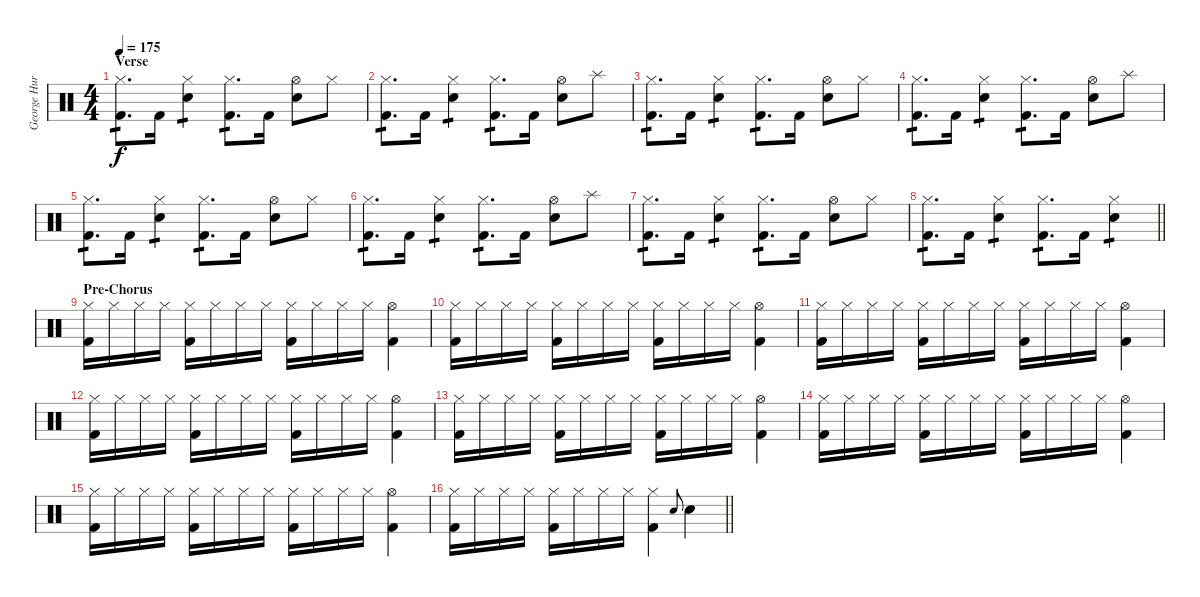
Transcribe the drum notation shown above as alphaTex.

\track ("George Hurley [Drums]" "George Hur") {instrument percussion}
\staff {score}
\articulation defaults
\ts (4 4)
\section ("" "Verse")
\tempo 175
\clef neutral
\ks c
("Hi-Hat (closed)" "Kick (hit) 2").8{d tp 1 dy f} "Kick (hit) 2".16 ("Hi-Hat (closed)" "Electric Snare (hit)").4{tp 1} ("Hi-Hat (closed)" "Kick (hit) 2").8{d tp 1} "Kick (hit) 2".16 ("Hi-Hat (open)" "Electric Snare (hit)").8 "Hi-Hat (closed)".8 |
("Hi-Hat (closed)" "Kick (hit) 2").8{d tp 1} "Kick (hit) 2".16 ("Hi-Hat (closed)" "Electric Snare (hit)").4{tp 1} ("Hi-Hat (closed)" "Kick (hit) 2").8{d tp 1} "Kick (hit) 2".16 ("Hi-Hat (open)" "Electric Snare (hit)").8 "Splash (hit)".8 |
("Hi-Hat (closed)" "Kick (hit) 2").8{d tp 1} "Kick (hit) 2".16 ("Hi-Hat (closed)" "Electric Snare (hit)").4{tp 1} ("Hi-Hat (closed)" "Kick (hit) 2").8{d tp 1} "Kick (hit) 2".16 ("Hi-Hat (open)" "Electric Snare (hit)").8 "Hi-Hat (closed)".8 |
("Hi-Hat (closed)" "Kick (hit) 2").8{d tp 1} "Kick (hit) 2".16 ("Hi-Hat (closed)" "Electric Snare (hit)").4{tp 1} ("Hi-Hat (closed)" "Kick (hit) 2").8{d tp 1} "Kick (hit) 2".16 ("Hi-Hat (open)" "Electric Snare (hit)").8 "Splash (hit)".8 |
("Hi-Hat (closed)" "Kick (hit) 2").8{d tp 1} "Kick (hit) 2".16 ("Hi-Hat (closed)" "Electric Snare (hit)").4{tp 1} ("Hi-Hat (closed)" "Kick (hit) 2").8{d tp 1} "Kick (hit) 2".16 ("Hi-Hat (open)" "Electric Snare (hit)").8 "Hi-Hat (closed)".8 |
("Hi-Hat (closed)" "Kick (hit) 2").8{d tp 1} "Kick (hit) 2".16 ("Hi-Hat (closed)" "Electric Snare (hit)").4{tp 1} ("Hi-Hat (closed)" "Kick (hit) 2").8{d tp 1} "Kick (hit) 2".16 ("Hi-Hat (open)" "Electric Snare (hit)").8 "Splash (hit)".8 |
("Hi-Hat (closed)" "Kick (hit) 2").8{d tp 1} "Kick (hit) 2".16 ("Hi-Hat (closed)" "Electric Snare (hit)").4{tp 1} ("Hi-Hat (closed)" "Kick (hit) 2").8{d tp 1} "Kick (hit) 2".16 ("Hi-Hat (open)" "Electric Snare (hit)").8 "Hi-Hat (closed)".8 |
\barLineRight lightlight
("Hi-Hat (closed)" "Kick (hit) 2").8{d tp 1} "Kick (hit) 2".16 ("Hi-Hat (closed)" "Electric Snare (hit)").4{tp 1} ("Hi-Hat (closed)" "Kick (hit) 2").8{d tp 1} "Kick (hit) 2".16 ("Hi-Hat (closed)" "Electric Snare (hit)").4{tp 1} |
\section ("" "Pre-Chorus")
("Hi-Hat (closed)" "Kick (hit) 2").16 "Hi-Hat (closed)".16 "Hi-Hat (closed)".16 "Hi-Hat (closed)".16 ("Hi-Hat (closed)" "Kick (hit) 2").16 "Hi-Hat (closed)".16 "Hi-Hat (closed)".16 "Hi-Hat (closed)".16 ("Hi-Hat (closed)" "Kick (hit) 2").16 "Hi-Hat (closed)".16 "Hi-Hat (closed)".16 "Hi-Hat (closed)".16 ("Hi-Hat (open)" "Kick (hit) 2").4 |
("Hi-Hat (closed)" "Kick (hit) 2").16 "Hi-Hat (closed)".16 "Hi-Hat (closed)".16 "Hi-Hat (closed)".16 ("Hi-Hat (closed)" "Kick (hit) 2").16 "Hi-Hat (closed)".16 "Hi-Hat (closed)".16 "Hi-Hat (closed)".16 ("Hi-Hat (closed)" "Kick (hit) 2").16 "Hi-Hat (closed)".16 "Hi-Hat (closed)".16 "Hi-Hat (closed)".16 ("Hi-Hat (open)" "Kick (hit) 2").4 |
("Hi-Hat (closed)" "Kick (hit) 2").16 "Hi-Hat (closed)".16 "Hi-Hat (closed)".16 "Hi-Hat (closed)".16 ("Hi-Hat (closed)" "Kick (hit) 2").16 "Hi-Hat (closed)".16 "Hi-Hat (closed)".16 "Hi-Hat (closed)".16 ("Hi-Hat (closed)" "Kick (hit) 2").16 "Hi-Hat (closed)".16 "Hi-Hat (closed)".16 "Hi-Hat (closed)".16 ("Hi-Hat (open)" "Kick (hit) 2").4 |
("Hi-Hat (closed)" "Kick (hit) 2").16 "Hi-Hat (closed)".16 "Hi-Hat (closed)".16 "Hi-Hat (closed)".16 ("Hi-Hat (closed)" "Kick (hit) 2").16 "Hi-Hat (closed)".16 "Hi-Hat (closed)".16 "Hi-Hat (closed)".16 ("Hi-Hat (closed)" "Kick (hit) 2").16 "Hi-Hat (closed)".16 "Hi-Hat (closed)".16 "Hi-Hat (closed)".16 ("Hi-Hat (open)" "Kick (hit) 2").4 |
("Hi-Hat (closed)" "Kick (hit) 2").16 "Hi-Hat (closed)".16 "Hi-Hat (closed)".16 "Hi-Hat (closed)".16 ("Hi-Hat (closed)" "Kick (hit) 2").16 "Hi-Hat (closed)".16 "Hi-Hat (closed)".16 "Hi-Hat (closed)".16 ("Hi-Hat (closed)" "Kick (hit) 2").16 "Hi-Hat (closed)".16 "Hi-Hat (closed)".16 "Hi-Hat (closed)".16 ("Hi-Hat (open)" "Kick (hit) 2").4 |
("Hi-Hat (closed)" "Kick (hit) 2").16 "Hi-Hat (closed)".16 "Hi-Hat (closed)".16 "Hi-Hat (closed)".16 ("Hi-Hat (closed)" "Kick (hit) 2").16 "Hi-Hat (closed)".16 "Hi-Hat (closed)".16 "Hi-Hat (closed)".16 ("Hi-Hat (closed)" "Kick (hit) 2").16 "Hi-Hat (closed)".16 "Hi-Hat (closed)".16 "Hi-Hat (closed)".16 ("Hi-Hat (open)" "Kick (hit) 2").4 |
("Hi-Hat (closed)" "Kick (hit) 2").16 "Hi-Hat (closed)".16 "Hi-Hat (closed)".16 "Hi-Hat (closed)".16 ("Hi-Hat (closed)" "Kick (hit) 2").16 "Hi-Hat (closed)".16 "Hi-Hat (closed)".16 "Hi-Hat (closed)".16 ("Hi-Hat (closed)" "Kick (hit) 2").16 "Hi-Hat (closed)".16 "Hi-Hat (closed)".16 "Hi-Hat (closed)".16 ("Hi-Hat (open)" "Kick (hit) 2").4 |
\barLineRight lightlight
("Hi-Hat (closed)" "Kick (hit) 2").16 "Hi-Hat (closed)".16 "Hi-Hat (closed)".16 "Hi-Hat (closed)".16 ("Hi-Hat (closed)" "Kick (hit) 2").16 "Hi-Hat (closed)".16 "Hi-Hat (closed)".16 "Hi-Hat (closed)".16 ("Hi-Hat (closed)" "Kick (hit) 2").4 "Electric Snare (hit)".8{gr onbeat} "Electric Snare (hit)".4
